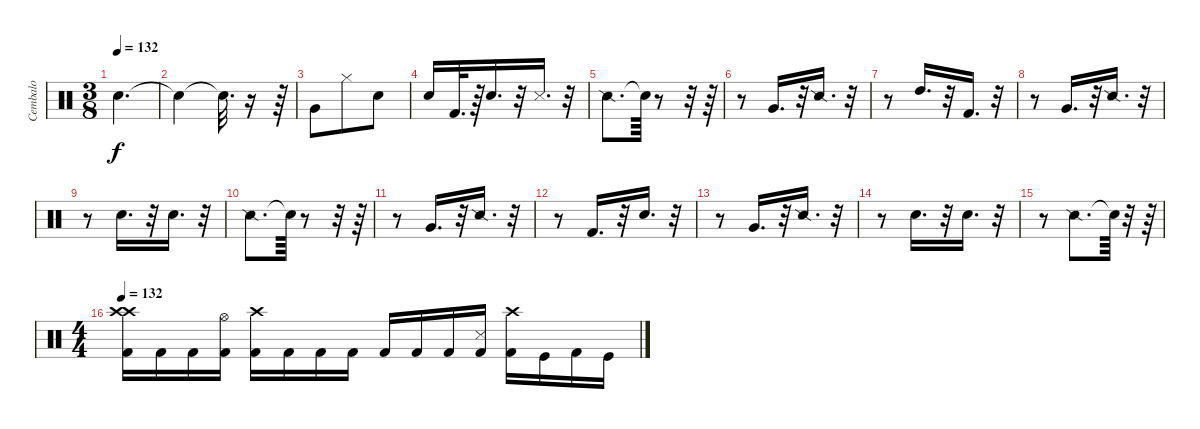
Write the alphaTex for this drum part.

\track ("Cembalo" "Cembalo") {instrument percussion}
\staff {score}
\articulation defaults
\ts (3 8)
\tempo 132
\clef neutral
\ks c "Snare (hit) 2".4{d dy f}
|
"Snare (hit)"{t}.4 "Snare (hit)"{t}.32{d} r.16 r.64 |
"Very Low Tom (hit)".8 "Hi-Hat (closed)".8 "Hand Clap (hit)".8 |
"Snare (hit) 2".16 "Kick (hit) 2".32{d} r.64 "Metronome (bell)".16{d} r.32 "Metronome (hit)".16{d} r.32 |
"Snare (side stick) 2".8{d} "Snare (hit)"{t}.64 r.8 r.32 r.64 |
r.8 "Very Low Tom (hit)".16{d} r.32 "Snare (side stick) 2".16{d} r.32 |
r.8 "High Tom (hit)".16{d} r.32 "Kick (hit) 2".16{d} r.32 |
r.8 "Very Low Tom (hit)".16{d} r.32 "Snare (side stick) 2".16{d} r.32 |
r.8 "Snare (hit) 2".16{d} r.32 "Snare (hit)".16{d} r.32 |
"Snare (side stick) 2".8{d} "Snare (hit)"{t}.64 r.8 r.32 r.64 |
r.8 "Very Low Tom (hit)".16{d} r.32 "Snare (side stick) 2".16{d} r.32 |
r.8 "Kick (hit) 2".16{d} r.32 "Snare (hit)".16{d} r.32 |
r.8 "Very Low Tom (hit)".16{d} r.32 "Snare (side stick) 2".16{d} r.32 |
r.8 "Snare (hit) 2".16{d} r.32 "Snare (hit)".16{d} r.32 |
r.8 "Snare (side stick) 2".8{d} "Snare (hit)"{t}.64 r.32 r.64 |
\ts (4 4)
\tempo 132
("Crash high (hit)" "Kick (hit) 2" "Crash high (hit)").16 "Kick (hit) 2".16 "Kick (hit) 2".16 ("Hi-Hat (open)" "Kick (hit) 2").16 ("Crash high (hit)" "Kick (hit) 2").16 "Kick (hit) 2".16 "Kick (hit) 2".16 "Kick (hit) 2".16 "Kick (hit) 2".16 "Kick (hit) 2".16 "Kick (hit) 2".16 ("Metronome (hit)" "Kick (hit) 2").16 ("Crash high (hit)" "Kick (hit) 2").16 "Kick (hit)".16 "Kick (hit) 2".16 "Kick (hit)".16
